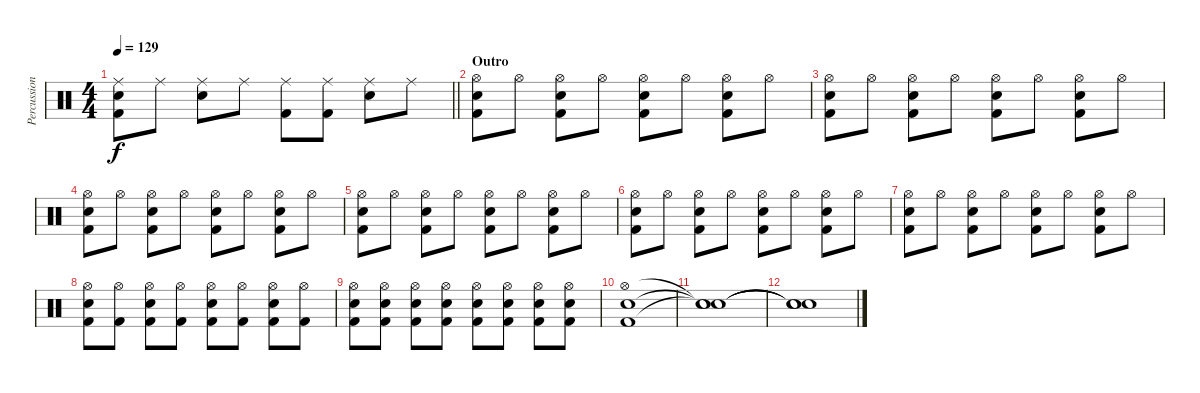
\track ("Percussion" "Percussion") {instrument percussion}
\staff {score}
\articulation defaults
\ts (4 4)
\tempo 129
\clef neutral
\barLineRight lightlight
\ks c
("Ride (middle)" "Electric Snare (hit)" "Kick (hit) 2").8{dy f} "Ride (middle)".8 ("Ride (middle)" "Electric Snare (hit)").8 "Ride (middle)".8 ("Ride (middle)" "Kick (hit) 2").8 ("Ride (middle)" "Kick (hit) 2").8 ("Ride (middle)" "Electric Snare (hit)").8 "Ride (middle)".8 |
\section ("" "Outro")
("Hi-Hat (open)" "Electric Snare (hit)" "Kick (hit) 2").8 "Hi-Hat (open)".8 ("Hi-Hat (open)" "Electric Snare (hit)" "Kick (hit) 2").8 "Hi-Hat (open)".8 ("Hi-Hat (open)" "Electric Snare (hit)" "Kick (hit) 2").8 "Hi-Hat (open)".8 ("Hi-Hat (open)" "Electric Snare (hit)" "Kick (hit) 2").8 "Hi-Hat (open)".8 |
("Hi-Hat (open)" "Electric Snare (hit)" "Kick (hit) 2").8 "Hi-Hat (open)".8 ("Hi-Hat (open)" "Electric Snare (hit)" "Kick (hit) 2").8 "Hi-Hat (open)".8 ("Hi-Hat (open)" "Electric Snare (hit)" "Kick (hit) 2").8 "Hi-Hat (open)".8 ("Hi-Hat (open)" "Electric Snare (hit)" "Kick (hit) 2").8 "Hi-Hat (open)".8 |
("Hi-Hat (open)" "Electric Snare (hit)" "Kick (hit) 2").8 "Hi-Hat (open)".8 ("Hi-Hat (open)" "Electric Snare (hit)" "Kick (hit) 2").8 "Hi-Hat (open)".8 ("Hi-Hat (open)" "Electric Snare (hit)" "Kick (hit) 2").8 "Hi-Hat (open)".8 ("Hi-Hat (open)" "Electric Snare (hit)" "Kick (hit) 2").8 "Hi-Hat (open)".8 |
("Hi-Hat (open)" "Electric Snare (hit)" "Kick (hit) 2").8 "Hi-Hat (open)".8 ("Hi-Hat (open)" "Electric Snare (hit)" "Kick (hit) 2").8 "Hi-Hat (open)".8 ("Hi-Hat (open)" "Electric Snare (hit)" "Kick (hit) 2").8 "Hi-Hat (open)".8 ("Hi-Hat (open)" "Electric Snare (hit)" "Kick (hit) 2").8 "Hi-Hat (open)".8 |
("Hi-Hat (open)" "Electric Snare (hit)" "Kick (hit) 2").8 "Hi-Hat (open)".8 ("Hi-Hat (open)" "Electric Snare (hit)" "Kick (hit) 2").8 "Hi-Hat (open)".8 ("Hi-Hat (open)" "Electric Snare (hit)" "Kick (hit) 2").8 "Hi-Hat (open)".8 ("Hi-Hat (open)" "Electric Snare (hit)" "Kick (hit) 2").8 "Hi-Hat (open)".8 |
("Hi-Hat (open)" "Electric Snare (hit)" "Kick (hit) 2").8 "Hi-Hat (open)".8 ("Hi-Hat (open)" "Electric Snare (hit)" "Kick (hit) 2").8 "Hi-Hat (open)".8 ("Hi-Hat (open)" "Electric Snare (hit)" "Kick (hit) 2").8 "Hi-Hat (open)".8 ("Hi-Hat (open)" "Electric Snare (hit)" "Kick (hit) 2").8 "Hi-Hat (open)".8 |
("Hi-Hat (open)" "Electric Snare (hit)" "Kick (hit) 2").8 ("Hi-Hat (open)" "Kick (hit) 2").8 ("Hi-Hat (open)" "Electric Snare (hit)" "Kick (hit) 2").8 ("Hi-Hat (open)" "Kick (hit) 2").8 ("Hi-Hat (open)" "Electric Snare (hit)" "Kick (hit) 2").8 ("Hi-Hat (open)" "Kick (hit) 2").8 ("Hi-Hat (open)" "Electric Snare (hit)" "Kick (hit) 2").8 ("Hi-Hat (open)" "Kick (hit) 2").8 |
("Hi-Hat (open)" "Electric Snare (hit)" "Kick (hit) 2").8 ("Hi-Hat (open)" "Electric Snare (hit)" "Kick (hit) 2").8 ("Hi-Hat (open)" "Electric Snare (hit)" "Kick (hit) 2").8 ("Hi-Hat (open)" "Electric Snare (hit)" "Kick (hit) 2").8 ("Hi-Hat (open)" "Electric Snare (hit)" "Kick (hit) 2").8 ("Hi-Hat (open)" "Electric Snare (hit)" "Kick (hit) 2").8 ("Hi-Hat (open)" "Electric Snare (hit)" "Kick (hit) 2").8 ("Hi-Hat (open)" "Electric Snare (hit)" "Kick (hit) 2").8 |
("Hi-Hat (open)" "Electric Snare (hit)" "Kick (hit) 2").1 |
("Snare (hit)"{t} "Snare (hit)"{t} "Snare (hit)"{t}).1 |
("Snare (hit)"{t} "Snare (hit)"{t} "Snare (hit)"{t}).1
